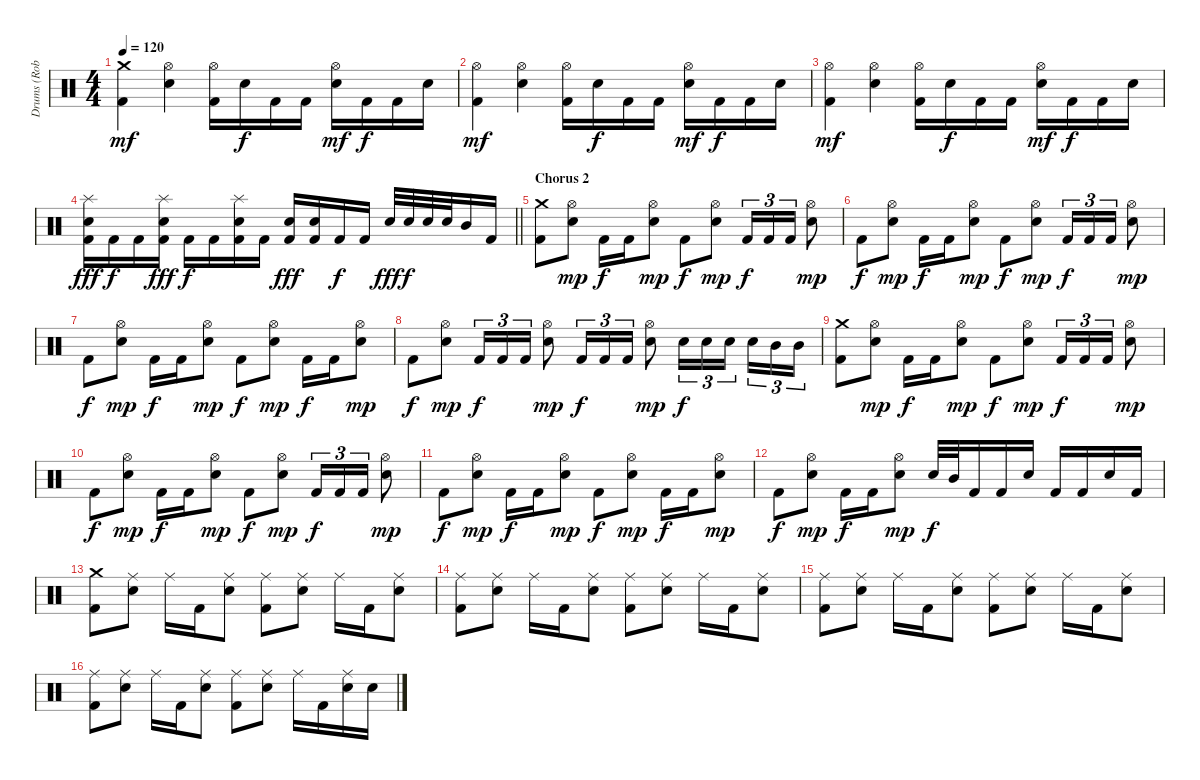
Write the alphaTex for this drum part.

\track ("Drums (Roberto Cappa)" "Drums (Rob") {instrument percussion}
\staff {score}
\articulation defaults
\ts (4 4)
\tempo 120
\clef neutral
\ks c
("Crash medium (hit)" "Kick (hit) 2").4{dy mf} ("Hi-Hat (open)" "Electric Snare (hit)").4 ("Hi-Hat (open)" "Kick (hit) 2").16 "Electric Snare (hit)".16{dy f} "Kick (hit) 2".16 "Kick (hit) 2".16 ("Hi-Hat (open)" "Electric Snare (hit)").16{dy mf} "Kick (hit) 2".16{dy f} "Kick (hit) 2".16 "Electric Snare (hit)".16 |
("Hi-Hat (open)" "Kick (hit) 2").4{dy mf} ("Hi-Hat (open)" "Electric Snare (hit)").4 ("Hi-Hat (open)" "Kick (hit) 2").16 "Electric Snare (hit)".16{dy f} "Kick (hit) 2".16 "Kick (hit) 2".16 ("Hi-Hat (open)" "Electric Snare (hit)").16{dy mf} "Kick (hit) 2".16{dy f} "Kick (hit) 2".16 "Electric Snare (hit)".16 |
("Hi-Hat (open)" "Kick (hit) 2").4{dy mf} ("Hi-Hat (open)" "Electric Snare (hit)").4 ("Hi-Hat (open)" "Kick (hit) 2").16 "Electric Snare (hit)".16{dy f} "Kick (hit) 2".16 "Kick (hit) 2".16 ("Hi-Hat (open)" "Electric Snare (hit)").16{dy mf} "Kick (hit) 2".16{dy f} "Kick (hit) 2".16 "Electric Snare (hit)".16 |
\barLineRight lightlight
("Splash (hit)" "Kick (hit) 2" "Electric Snare (hit)").16{dy fff} "Kick (hit) 2".16{dy f} "Kick (hit) 2".16 ("Splash (hit)" "Kick (hit) 2" "Electric Snare (hit)").16{dy fff} "Kick (hit) 2".16{dy f} "Kick (hit) 2".16 ("Splash (hit)" "Kick (hit) 2" "Electric Snare (hit)").16 "Kick (hit) 2".16 ("Kick (hit) 2" "Electric Snare (hit)").16{dy fff} ("Kick (hit) 2" "Electric Snare (hit)").16 "Kick (hit) 2".16{dy f} "Kick (hit) 2".16 "Electric Snare (hit)".32{dy fff} "Electric Snare (hit)".32{dy f} "Electric Snare (hit)".32 "Electric Snare (hit)".32 "Mid Tom (hit)".16 "Kick (hit) 2".16 |
\section ("" "Chorus 2")
("Crash medium (hit)" "Kick (hit) 2").8 ("Hi-Hat (open)" "Electric Snare (hit)").8{dy mp} "Kick (hit) 2".16{dy f} "Kick (hit) 2".16 ("Hi-Hat (open)" "Electric Snare (hit)").8{dy mp} "Kick (hit) 2".8{dy f} ("Hi-Hat (open)" "Electric Snare (hit)").8{dy mp} "Kick (hit) 2".16{tu (3 2) dy f} "Kick (hit) 2".16{tu (3 2)} "Kick (hit) 2".16{tu (3 2)} ("Hi-Hat (open)" "Electric Snare (hit)").8{dy mp} |
"Kick (hit) 2".8{dy f} ("Hi-Hat (open)" "Electric Snare (hit)").8{dy mp} "Kick (hit) 2".16{dy f} "Kick (hit) 2".16 ("Hi-Hat (open)" "Electric Snare (hit)").8{dy mp} "Kick (hit) 2".8{dy f} ("Hi-Hat (open)" "Electric Snare (hit)").8{dy mp} "Kick (hit) 2".16{tu (3 2) dy f} "Kick (hit) 2".16{tu (3 2)} "Kick (hit) 2".16{tu (3 2)} ("Hi-Hat (open)" "Electric Snare (hit)").8{dy mp} |
"Kick (hit) 2".8{dy f} ("Hi-Hat (open)" "Electric Snare (hit)").8{dy mp} "Kick (hit) 2".16{dy f} "Kick (hit) 2".16 ("Hi-Hat (open)" "Electric Snare (hit)").8{dy mp} "Kick (hit) 2".8{dy f} ("Hi-Hat (open)" "Electric Snare (hit)").8{dy mp} "Kick (hit) 2".16{dy f} "Kick (hit) 2".16 ("Hi-Hat (open)" "Electric Snare (hit)").8{dy mp} |
"Kick (hit) 2".8{dy f} ("Hi-Hat (open)" "Electric Snare (hit)").8{dy mp} "Kick (hit) 2".16{tu (3 2) dy f} "Kick (hit) 2".16{tu (3 2)} "Kick (hit) 2".16{tu (3 2)} ("Hi-Hat (open)" "Electric Snare (hit)").8{dy mp} "Kick (hit) 2".16{tu (3 2) dy f} "Kick (hit) 2".16{tu (3 2)} "Kick (hit) 2".16{tu (3 2)} ("Hi-Hat (open)" "Electric Snare (hit)").8{dy mp} "Electric Snare (hit)".16{tu (3 2) dy f} "Electric Snare (hit)".16{tu (3 2)} "Electric Snare (hit)".16{tu (3 2) beam splitsecondary} "Electric Snare (hit)".16{tu (3 2)} "Mid Tom (hit)".16{tu (3 2)} "Mid Tom (hit)".16{tu (3 2)} |
("Crash medium (hit)" "Kick (hit) 2").8 ("Hi-Hat (open)" "Electric Snare (hit)").8{dy mp} "Kick (hit) 2".16{dy f} "Kick (hit) 2".16 ("Hi-Hat (open)" "Electric Snare (hit)").8{dy mp} "Kick (hit) 2".8{dy f} ("Hi-Hat (open)" "Electric Snare (hit)").8{dy mp} "Kick (hit) 2".16{tu (3 2) dy f} "Kick (hit) 2".16{tu (3 2)} "Kick (hit) 2".16{tu (3 2)} ("Hi-Hat (open)" "Electric Snare (hit)").8{dy mp} |
"Kick (hit) 2".8{dy f} ("Hi-Hat (open)" "Electric Snare (hit)").8{dy mp} "Kick (hit) 2".16{dy f} "Kick (hit) 2".16 ("Hi-Hat (open)" "Electric Snare (hit)").8{dy mp} "Kick (hit) 2".8{dy f} ("Hi-Hat (open)" "Electric Snare (hit)").8{dy mp} "Kick (hit) 2".16{tu (3 2) dy f} "Kick (hit) 2".16{tu (3 2)} "Kick (hit) 2".16{tu (3 2)} ("Hi-Hat (open)" "Electric Snare (hit)").8{dy mp} |
"Kick (hit) 2".8{dy f} ("Hi-Hat (open)" "Electric Snare (hit)").8{dy mp} "Kick (hit) 2".16{dy f} "Kick (hit) 2".16 ("Hi-Hat (open)" "Electric Snare (hit)").8{dy mp} "Kick (hit) 2".8{dy f} ("Hi-Hat (open)" "Electric Snare (hit)").8{dy mp} "Kick (hit) 2".16{dy f} "Kick (hit) 2".16 ("Hi-Hat (open)" "Electric Snare (hit)").8{dy mp} |
"Kick (hit) 2".8{dy f} ("Hi-Hat (open)" "Electric Snare (hit)").8{dy mp} "Kick (hit) 2".16{dy f} "Kick (hit) 2".16 ("Hi-Hat (open)" "Electric Snare (hit)").8{dy mp} "Electric Snare (hit)".32{dy f} "Mid Tom (hit)".32 "Kick (hit) 2".16 "Kick (hit) 2".16 "Electric Snare (hit)".16 "Kick (hit) 2".16 "Kick (hit) 2".16 "Electric Snare (hit)".16 "Kick (hit) 2".16 |
("Crash medium (hit)" "Kick (hit) 2").8 ("Ride (middle)" "Electric Snare (hit)").8 "Ride (middle)".16 "Kick (hit) 2".16 ("Ride (middle)" "Electric Snare (hit)").8 ("Ride (middle)" "Kick (hit) 2").8 ("Ride (middle)" "Electric Snare (hit)").8 "Ride (middle)".16 "Kick (hit) 2".16 ("Ride (middle)" "Electric Snare (hit)").8 |
("Ride (middle)" "Kick (hit) 2").8 ("Ride (middle)" "Electric Snare (hit)").8 "Ride (middle)".16 "Kick (hit) 2".16 ("Ride (middle)" "Electric Snare (hit)").8 ("Ride (middle)" "Kick (hit) 2").8 ("Ride (middle)" "Electric Snare (hit)").8 "Ride (middle)".16 "Kick (hit) 2".16 ("Ride (middle)" "Electric Snare (hit)").8 |
("Ride (middle)" "Kick (hit) 2").8 ("Ride (middle)" "Electric Snare (hit)").8 "Ride (middle)".16 "Kick (hit) 2".16 ("Ride (middle)" "Electric Snare (hit)").8 ("Ride (middle)" "Kick (hit) 2").8 ("Ride (middle)" "Electric Snare (hit)").8 "Ride (middle)".16 "Kick (hit) 2".16 ("Ride (middle)" "Electric Snare (hit)").8 |
("Ride (middle)" "Kick (hit) 2").8 ("Ride (middle)" "Electric Snare (hit)").8 "Ride (middle)".16 "Kick (hit) 2".16 ("Ride (middle)" "Electric Snare (hit)").8 ("Ride (middle)" "Kick (hit) 2").8 ("Ride (middle)" "Electric Snare (hit)").8 "Ride (middle)".16 "Kick (hit) 2".16 ("Ride (middle)" "Electric Snare (hit)").16 "Electric Snare (hit)".16
